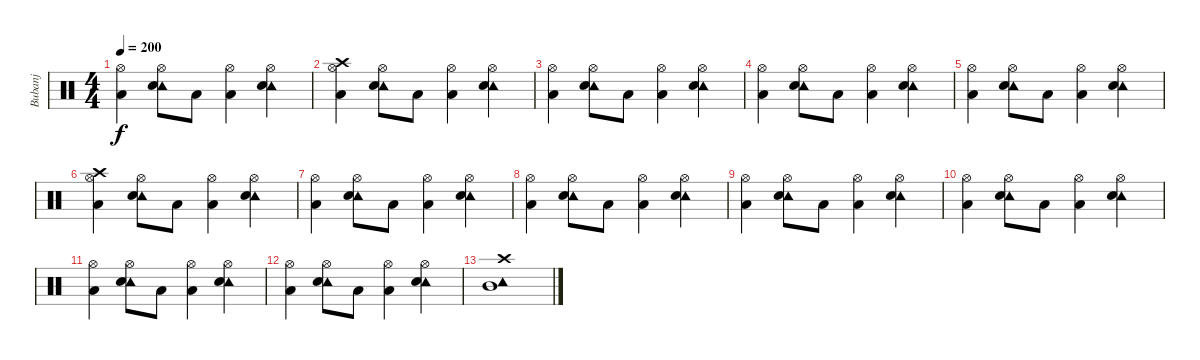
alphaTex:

\track ("Bubanj" "Bubanj") {instrument percussion}
\staff {score}
\articulation defaults
\ts (4 4)
\tempo 200
\clef neutral
\ks c
("Hi-Hat (open)" "Low Tom (hit)").4{dy f} ("Hi-Hat (open)" "Tambourine (hit)" "Snare (hit) 2").8 "Low Tom (hit)".8 ("Hi-Hat (open)" "Low Tom (hit)").4 ("Hi-Hat (open)" "Tambourine (hit)" "Snare (hit) 2").4 |
("Hi-Hat (open)" "Crash high (hit)" "Low Tom (hit)").4 ("Hi-Hat (open)" "Tambourine (hit)" "Snare (hit) 2").8 "Low Tom (hit)".8 ("Hi-Hat (open)" "Low Tom (hit)").4 ("Hi-Hat (open)" "Tambourine (hit)" "Snare (hit) 2").4 |
("Hi-Hat (open)" "Low Tom (hit)").4 ("Hi-Hat (open)" "Tambourine (hit)" "Snare (hit) 2").8 "Low Tom (hit)".8 ("Hi-Hat (open)" "Low Tom (hit)").4 ("Hi-Hat (open)" "Tambourine (hit)" "Snare (hit) 2").4 |
("Hi-Hat (open)" "Low Tom (hit)").4 ("Hi-Hat (open)" "Tambourine (hit)" "Snare (hit) 2").8 "Low Tom (hit)".8 ("Hi-Hat (open)" "Low Tom (hit)").4 ("Hi-Hat (open)" "Tambourine (hit)" "Snare (hit) 2").4 |
("Hi-Hat (open)" "Low Tom (hit)").4 ("Hi-Hat (open)" "Tambourine (hit)" "Snare (hit) 2").8 "Low Tom (hit)".8 ("Hi-Hat (open)" "Low Tom (hit)").4 ("Hi-Hat (open)" "Tambourine (hit)" "Snare (hit) 2").4 |
("Hi-Hat (open)" "Crash high (hit)" "Low Tom (hit)").4 ("Hi-Hat (open)" "Tambourine (hit)" "Snare (hit) 2").8 "Low Tom (hit)".8 ("Hi-Hat (open)" "Low Tom (hit)").4 ("Hi-Hat (open)" "Tambourine (hit)" "Snare (hit) 2").4 |
("Hi-Hat (open)" "Low Tom (hit)").4 ("Hi-Hat (open)" "Tambourine (hit)" "Snare (hit) 2").8 "Low Tom (hit)".8 ("Hi-Hat (open)" "Low Tom (hit)").4 ("Hi-Hat (open)" "Tambourine (hit)" "Snare (hit) 2").4 |
("Hi-Hat (open)" "Low Tom (hit)").4 ("Hi-Hat (open)" "Tambourine (hit)" "Snare (hit) 2").8 "Low Tom (hit)".8 ("Hi-Hat (open)" "Low Tom (hit)").4 ("Hi-Hat (open)" "Tambourine (hit)" "Snare (hit) 2").4 |
("Hi-Hat (open)" "Low Tom (hit)").4 ("Hi-Hat (open)" "Tambourine (hit)" "Snare (hit) 2").8 "Low Tom (hit)".8 ("Hi-Hat (open)" "Low Tom (hit)").4 ("Hi-Hat (open)" "Tambourine (hit)" "Snare (hit) 2").4 |
("Hi-Hat (open)" "Low Tom (hit)").4 ("Hi-Hat (open)" "Tambourine (hit)" "Snare (hit) 2").8 "Low Tom (hit)".8 ("Hi-Hat (open)" "Low Tom (hit)").4 ("Hi-Hat (open)" "Tambourine (hit)" "Snare (hit) 2").4 |
("Hi-Hat (open)" "Low Tom (hit)").4 ("Hi-Hat (open)" "Tambourine (hit)" "Snare (hit) 2").8 "Low Tom (hit)".8 ("Hi-Hat (open)" "Low Tom (hit)").4 ("Hi-Hat (open)" "Tambourine (hit)" "Snare (hit) 2").4 |
("Hi-Hat (open)" "Low Tom (hit)").4 ("Hi-Hat (open)" "Tambourine (hit)" "Snare (hit) 2").8 "Low Tom (hit)".8 ("Hi-Hat (open)" "Low Tom (hit)").4 ("Hi-Hat (open)" "Tambourine (hit)" "Snare (hit) 2").4 |
("Crash high (hit)" "Tambourine (hit)" "Mid Tom (hit)").1
